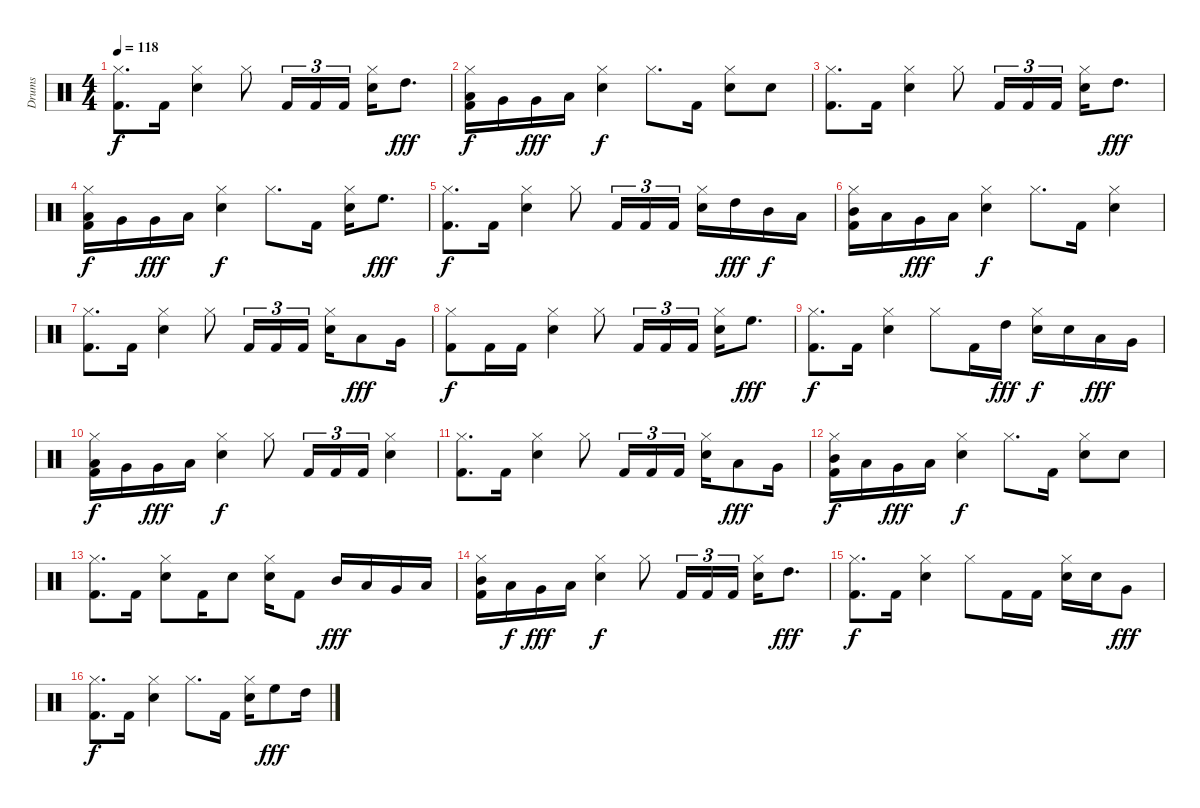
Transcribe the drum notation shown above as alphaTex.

\track ("Drums" "Drums") {instrument percussion}
\staff {score}
\articulation defaults
\ts (4 4)
\tempo 118
\clef neutral
\ks c
("Hi-Hat (closed)" "Kick (hit) 2").8{d dy f} "Kick (hit) 2".16 ("Hi-Hat (closed)" "Electric Snare (hit)").4 "Hi-Hat (closed)".8 "Kick (hit) 2".16{tu (3 2)} "Kick (hit) 2".16{tu (3 2)} "Kick (hit) 2".16{tu (3 2)} ("Hi-Hat (closed)" "Electric Snare (hit)").16 "High Tom (hit)".8{d dy fff} |
("Hi-Hat (closed)" "Low Tom (hit)" "Kick (hit) 2").16{dy f} "Very Low Tom (hit)".16 "Very Low Tom (hit)".16{dy fff} "Low Floor Tom (hit)".16 ("Hi-Hat (closed)" "Electric Snare (hit)").4{dy f} "Hi-Hat (closed)".8{d} "Kick (hit) 2".16 ("Hi-Hat (closed)" "Electric Snare (hit)").8 "Electric Snare (hit)".8 |
("Hi-Hat (closed)" "Kick (hit) 2").8{d} "Kick (hit) 2".16 ("Hi-Hat (closed)" "Electric Snare (hit)").4 "Hi-Hat (closed)".8 "Kick (hit) 2".16{tu (3 2)} "Kick (hit) 2".16{tu (3 2)} "Kick (hit) 2".16{tu (3 2)} ("Hi-Hat (closed)" "Electric Snare (hit)").16 "High Tom (hit)".8{d dy fff} |
("Hi-Hat (closed)" "Low Tom (hit)" "Kick (hit) 2").16{dy f} "Very Low Tom (hit)".16 "Very Low Tom (hit)".16{dy fff} "Low Floor Tom (hit)".16 ("Hi-Hat (closed)" "Electric Snare (hit)").4{dy f} "Hi-Hat (closed)".8{d} "Kick (hit) 2".16 ("Hi-Hat (closed)" "Electric Snare (hit)").16 "High Floor Tom (hit)".8{d dy fff} |
("Hi-Hat (closed)" "Kick (hit) 2").8{d dy f} "Kick (hit) 2".16 ("Hi-Hat (closed)" "Electric Snare (hit)").4 "Hi-Hat (closed)".8 "Kick (hit) 2".16{tu (3 2)} "Kick (hit) 2".16{tu (3 2)} "Kick (hit) 2".16{tu (3 2)} ("Hi-Hat (closed)" "Electric Snare (hit)").16 "High Tom (hit)".16{dy fff} "Mid Tom (hit)".16{dy f} "Low Tom (hit)".16 |
("Hi-Hat (closed)" "Mid Tom (hit)" "Kick (hit) 2").16 "Low Tom (hit)".16 "Very Low Tom (hit)".16{dy fff} "Low Floor Tom (hit)".16 ("Hi-Hat (closed)" "Electric Snare (hit)").4{dy f} "Hi-Hat (closed)".8{d} "Kick (hit) 2".16 ("Hi-Hat (closed)" "Electric Snare (hit)").4 |
("Hi-Hat (closed)" "Kick (hit) 2").8{d} "Kick (hit) 2".16 ("Hi-Hat (closed)" "Electric Snare (hit)").4 "Hi-Hat (closed)".8 "Kick (hit) 2".16{tu (3 2)} "Kick (hit) 2".16{tu (3 2)} "Kick (hit) 2".16{tu (3 2)} ("Hi-Hat (closed)" "Electric Snare (hit)").16 "Low Floor Tom (hit)".8{dy fff} "Very Low Tom (hit)".16 |
("Hi-Hat (closed)" "Kick (hit) 2").8{dy f} "Kick (hit) 2".16 "Kick (hit) 2".16 ("Hi-Hat (closed)" "Electric Snare (hit)").4 "Hi-Hat (closed)".8 "Kick (hit) 2".16{tu (3 2)} "Kick (hit) 2".16{tu (3 2)} "Kick (hit) 2".16{tu (3 2)} ("Hi-Hat (closed)" "Electric Snare (hit)").16 "High Floor Tom (hit)".8{d dy fff} |
("Hi-Hat (closed)" "Kick (hit) 2").8{d dy f} "Kick (hit) 2".16 ("Hi-Hat (closed)" "Electric Snare (hit)").4 "Hi-Hat (closed)".8 "Kick (hit) 2".16 "High Tom (hit)".16{dy fff} ("Hi-Hat (closed)" "Electric Snare (hit)").16{dy f} "Electric Snare (hit)".16 "Low Tom (hit)".16{dy fff} "Very Low Tom (hit)".16 |
("Hi-Hat (closed)" "Low Tom (hit)" "Kick (hit) 2").16{dy f} "Very Low Tom (hit)".16 "Very Low Tom (hit)".16{dy fff} "Low Floor Tom (hit)".16 ("Hi-Hat (closed)" "Electric Snare (hit)").4{dy f} "Hi-Hat (closed)".8 "Kick (hit) 2".16{tu (3 2)} "Kick (hit) 2".16{tu (3 2)} "Kick (hit) 2".16{tu (3 2)} ("Hi-Hat (closed)" "Electric Snare (hit)").4 |
("Hi-Hat (closed)" "Kick (hit) 2").8{d} "Kick (hit) 2".16 ("Hi-Hat (closed)" "Electric Snare (hit)").4 "Hi-Hat (closed)".8 "Kick (hit) 2".16{tu (3 2)} "Kick (hit) 2".16{tu (3 2)} "Kick (hit) 2".16{tu (3 2)} ("Hi-Hat (closed)" "Electric Snare (hit)").16 "Low Tom (hit)".8{dy fff} "Very Low Tom (hit)".16 |
("Hi-Hat (closed)" "Mid Tom (hit)" "Kick (hit) 2").16{dy f} "Low Tom (hit)".16 "Very Low Tom (hit)".16{dy fff} "Low Floor Tom (hit)".16 ("Hi-Hat (closed)" "Electric Snare (hit)").4{dy f} "Hi-Hat (closed)".8{d} "Kick (hit) 2".16 ("Hi-Hat (closed)" "Electric Snare (hit)").8 "Electric Snare (hit)".8 |
("Hi-Hat (closed)" "Kick (hit) 2").8{d} "Kick (hit) 2".16 ("Hi-Hat (closed)" "Electric Snare (hit)").8 "Kick (hit) 2".16 "Electric Snare (hit)".8 ("Hi-Hat (closed)" "Electric Snare (hit)").16 "Kick (hit) 2".8 "Mid Tom (hit)".16{dy fff} "Low Tom (hit)".16 "Very Low Tom (hit)".16 "Low Floor Tom (hit)".16 |
("Hi-Hat (closed)" "Mid Tom (hit)" "Kick (hit) 2").16 "Low Tom (hit)".16{dy f} "Very Low Tom (hit)".16{dy fff} "Low Floor Tom (hit)".16 ("Hi-Hat (closed)" "Electric Snare (hit)").4{dy f} "Hi-Hat (closed)".8 "Kick (hit) 2".16{tu (3 2)} "Kick (hit) 2".16{tu (3 2)} "Kick (hit) 2".16{tu (3 2)} ("Hi-Hat (closed)" "Electric Snare (hit)").16 "High Tom (hit)".8{d dy fff} |
("Hi-Hat (closed)" "Kick (hit) 2").8{d dy f} "Kick (hit) 2".16 ("Hi-Hat (closed)" "Electric Snare (hit)").4 "Hi-Hat (closed)".8 "Kick (hit) 2".16 "Kick (hit) 2".16 ("Hi-Hat (closed)" "Electric Snare (hit)").16 "Electric Snare (hit)".16 "Very Low Tom (hit)".8{dy fff} |
("Hi-Hat (closed)" "Kick (hit) 2").8{d dy f} "Kick (hit) 2".16 ("Hi-Hat (closed)" "Electric Snare (hit)").4 "Hi-Hat (closed)".8{d} "Kick (hit) 2".16 ("Hi-Hat (closed)" "Electric Snare (hit)").16 "High Floor Tom (hit)".8{dy fff} "High Tom (hit)".16
